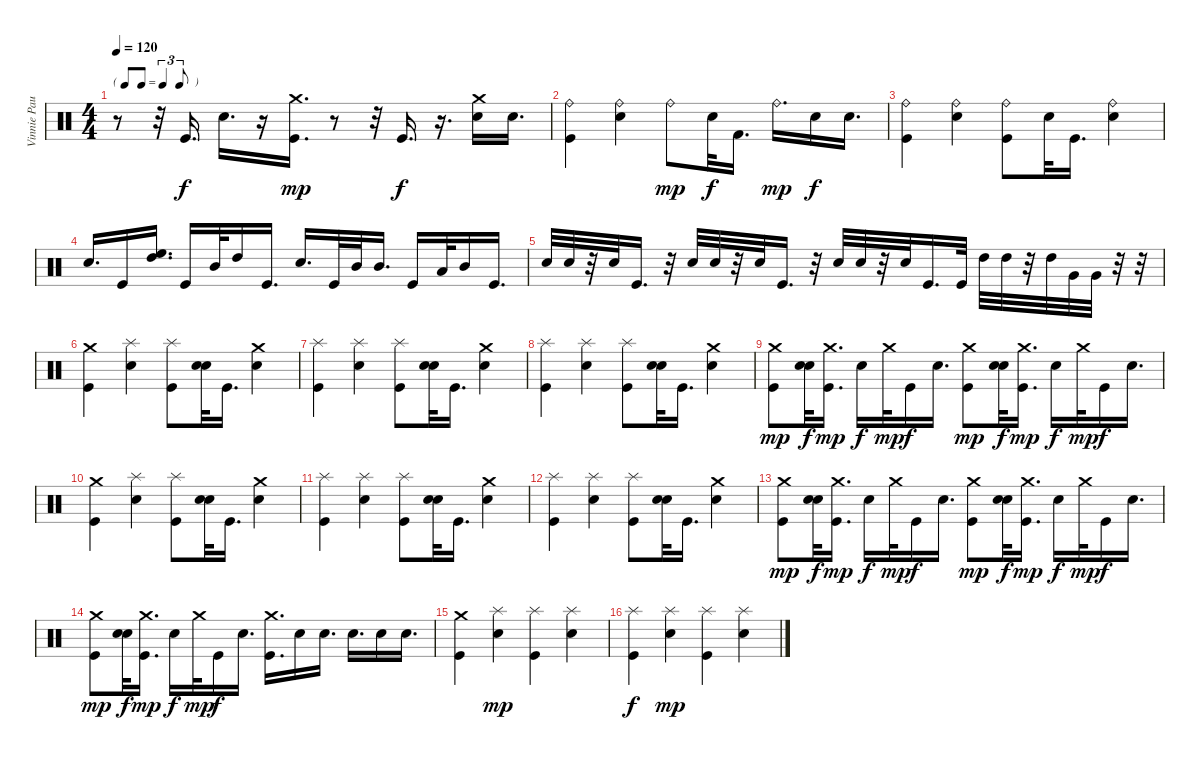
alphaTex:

\track ("Vinnie Paul" "Vinnie Pau") {instrument percussion}
\staff {score}
\articulation defaults
\ts (4 4)
\tf triplet8th
\tempo 120
\clef neutral
\ks c
r.8{dy mp} r.32 "Kick (hit)".16{d dy f} "Snare (hit) 2".16{d} r.16 ("Crash medium (hit)" "Kick (hit)").16{d dy mp} r.8 r.32 "Kick (hit)".16{d dy f} r.16{d} ("Snare (hit) 2" "Crash medium (hit)").16 "Snare (hit) 2".16{d} |
("Kick (hit)" "Ride (bell)").4 ("Snare (hit) 2" "Ride (bell)").4 "Ride (bell)".8{dy mp} "Snare (hit)".32{dy f} "Kick (hit) 2".16{d} "Ride (bell)".16{d dy mp} "Snare (hit) 2".16{dy f} "Snare (hit) 2".16{d} |
("Kick (hit)" "Ride (bell)").4 ("Snare (hit) 2" "Ride (bell)").4 ("Kick (hit)" "Ride (bell)").8 "Snare (hit)".32 "Kick (hit)".16{d} ("Snare (hit) 2" "Ride (bell)").4 |
"Snare (hit) 2".16{d} "Kick (hit)".16 ("High Floor Tom (hit)" "High Tom (hit)").16{d} "Kick (hit)".16 "Mid Tom (hit)".32 "High Tom (hit)".16 "Kick (hit)".16{d} "Snare (hit) 2".16{d} "Kick (hit)".32 "Mid Tom (hit)".32 "Mid Tom (hit)".16{d} "Kick (hit)".16 "Low Tom (hit)".32 "Mid Tom (hit)".16 "Kick (hit)".16{d} |
"Snare (hit) 2".32 "Snare (hit) 2".32 r.32 "Snare (hit) 2".32 "Kick (hit)".16{d} r.32 "Snare (hit) 2".32 "Snare (hit) 2".32 r.32 "Snare (hit) 2".32 "Kick (hit)".16{d} r.32 "Snare (hit) 2".32 "Snare (hit) 2".32 r.32 "Snare (hit) 2".32 "Kick (hit)".16{d} "Kick (hit)".32 "High Tom (hit)".32 "High Tom (hit)".32 r.32 "High Tom (hit)".32 "Very Low Tom (hit)".32 "Very Low Tom (hit)".32 r.32 r.32 |
("Kick (hit)" "Crash medium (hit)").4 ("Snare (hit) 2" "Splash (hit)").4 ("Kick (hit)" "Splash (hit)").8 ("Snare (hit)" "Snare (hit)").32 "Kick (hit)".16{d} ("Snare (hit) 2" "Crash medium (hit)").4 |
("Kick (hit)" "Splash (hit)").4 ("Snare (hit) 2" "Splash (hit)").4 ("Kick (hit)" "Splash (hit)").8 ("Snare (hit)" "Snare (hit)").32 "Kick (hit)".16{d} ("Snare (hit) 2" "Crash medium (hit)").4 |
("Kick (hit)" "Splash (hit)").4 ("Snare (hit) 2" "Splash (hit)").4 ("Kick (hit)" "Splash (hit)").8 ("Snare (hit)" "Snare (hit)").32 "Kick (hit)".16{d} ("Snare (hit) 2" "Crash medium (hit)").4 |
("Crash medium (hit)" "Kick (hit)").8{dy mp} ("Snare (hit)" "Snare (hit)").32{dy f} ("Crash medium (hit)" "Kick (hit)").16{d dy mp} "Snare (hit) 2".16{dy f} "Crash medium (hit)".32{dy mp} "Kick (hit)".16{dy f} "Snare (hit) 2".16{d} ("Crash medium (hit)" "Kick (hit)").8{dy mp} ("Snare (hit)" "Snare (hit)").32{dy f} ("Crash medium (hit)" "Kick (hit)").16{d dy mp} "Snare (hit) 2".16{dy f} "Crash medium (hit)".32{dy mp} "Kick (hit)".16{dy f} "Snare (hit) 2".16{d} |
("Kick (hit)" "Crash medium (hit)").4 ("Snare (hit) 2" "Splash (hit)").4 ("Kick (hit)" "Splash (hit)").8 ("Snare (hit)" "Snare (hit)").32 "Kick (hit)".16{d} ("Snare (hit) 2" "Crash medium (hit)").4 |
("Kick (hit)" "Splash (hit)").4 ("Snare (hit) 2" "Splash (hit)").4 ("Kick (hit)" "Splash (hit)").8 ("Snare (hit)" "Snare (hit)").32 "Kick (hit)".16{d} ("Snare (hit) 2" "Crash medium (hit)").4 |
("Kick (hit)" "Splash (hit)").4 ("Snare (hit) 2" "Splash (hit)").4 ("Kick (hit)" "Splash (hit)").8 ("Snare (hit)" "Snare (hit)").32 "Kick (hit)".16{d} ("Snare (hit) 2" "Crash medium (hit)").4 |
("Crash medium (hit)" "Kick (hit)").8{dy mp} ("Snare (hit)" "Snare (hit)").32{dy f} ("Crash medium (hit)" "Kick (hit)").16{d dy mp} "Snare (hit) 2".16{dy f} "Crash medium (hit)".32{dy mp} "Kick (hit)".16{dy f} "Snare (hit) 2".16{d} ("Crash medium (hit)" "Kick (hit)").8{dy mp} ("Snare (hit)" "Snare (hit)").32{dy f} ("Crash medium (hit)" "Kick (hit)").16{d dy mp} "Snare (hit) 2".16{dy f} "Crash medium (hit)".32{dy mp} "Kick (hit)".16{dy f} "Snare (hit) 2".16{d} |
("Crash medium (hit)" "Kick (hit)").8{dy mp} ("Snare (hit)" "Snare (hit)").32{dy f} ("Crash medium (hit)" "Kick (hit)").16{d dy mp} "Snare (hit) 2".16{dy f} "Crash medium (hit)".32{dy mp} "Kick (hit)".16{dy f} "Snare (hit) 2".16{d} ("Kick (hit)" "Crash medium (hit)").16{d} "Snare (hit) 2".16 "Snare (hit) 2".16{d} "Snare (hit) 2".16{d} "Snare (hit) 2".16 "Snare (hit) 2".16{d} |
("Kick (hit)" "Crash medium (hit)").4 ("Splash (hit)" "Snare (hit) 2").4{dy mp} ("Splash (hit)" "Kick (hit)").4 ("Splash (hit)" "Snare (hit) 2").4 |
("Kick (hit)" "Splash (hit)").4{dy f} ("Splash (hit)" "Snare (hit) 2").4{dy mp} ("Splash (hit)" "Kick (hit)").4 ("Splash (hit)" "Snare (hit) 2").4
